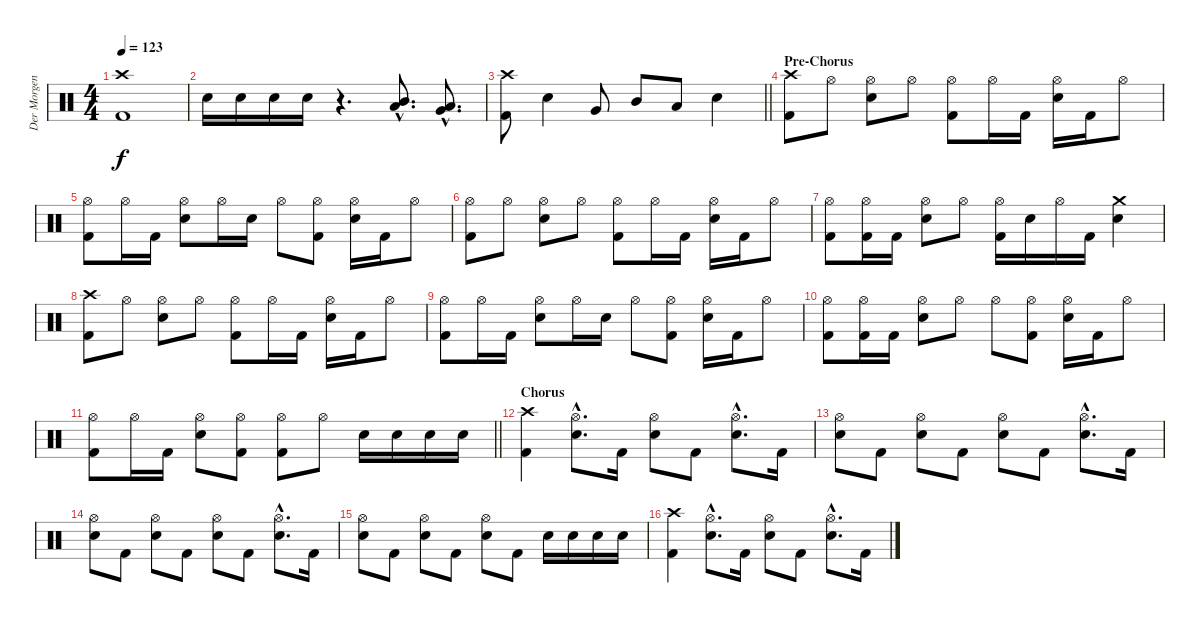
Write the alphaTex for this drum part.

\track ("Der Morgenstern" "Der Morgen") {instrument percussion}
\staff {score}
\articulation defaults
\ts (4 4)
\tempo 123
\clef neutral
\ks c
("Crash high (hit)" "Kick (hit) 2").1{dy f} |
"Electric Snare (hit)".16 "Electric Snare (hit)".16 "Electric Snare (hit)".16 "Electric Snare (hit)".16 r.4{d} ("Mid Tom (hit)"{hac} "Low Tom (hit)"{hac}).8{d} ("Low Tom (hit)"{hac} "Very Low Tom (hit)"{hac}).8{d} |
\barLineRight lightlight
("Crash high (hit)" "Kick (hit) 2").8 "Electric Snare (hit)".4 "Very Low Tom (hit)".8 "Mid Tom (hit)".8 "Low Tom (hit)".8 "Electric Snare (hit)".4 |
\section ("" "Pre-Chorus")
("Crash high (hit)" "Kick (hit) 2").8 "Hi-Hat (open)".8 ("Hi-Hat (open)" "Electric Snare (hit)").8 "Hi-Hat (open)".8 ("Hi-Hat (open)" "Kick (hit) 2").8 "Hi-Hat (open)".16 "Kick (hit) 2".16 ("Hi-Hat (open)" "Electric Snare (hit)").16 "Kick (hit) 2".16 "Hi-Hat (open)".8 |
("Hi-Hat (open)" "Kick (hit) 2").8 "Hi-Hat (open)".16 "Kick (hit) 2".16 ("Hi-Hat (open)" "Electric Snare (hit)").8 "Hi-Hat (open)".16 "Electric Snare (hit)".16 "Hi-Hat (open)".8 ("Hi-Hat (open)" "Kick (hit) 2").8 ("Hi-Hat (open)" "Electric Snare (hit)").16 "Kick (hit) 2".16 "Hi-Hat (open)".8 |
("Hi-Hat (open)" "Kick (hit) 2").8 "Hi-Hat (open)".8 ("Hi-Hat (open)" "Electric Snare (hit)").8 "Hi-Hat (open)".8 ("Hi-Hat (open)" "Kick (hit) 2").8 "Hi-Hat (open)".16 "Kick (hit) 2".16 ("Hi-Hat (open)" "Electric Snare (hit)").16 "Kick (hit) 2".16 "Hi-Hat (open)".8 |
("Hi-Hat (open)" "Kick (hit) 2").8 ("Hi-Hat (open)" "Kick (hit) 2").16 "Kick (hit) 2".16 ("Hi-Hat (open)" "Electric Snare (hit)").8 "Hi-Hat (open)".8 ("Hi-Hat (open)" "Kick (hit) 2").16 "Electric Snare (hit)".16 "Hi-Hat (open)".16 "Kick (hit) 2".16 ("Crash medium (hit)" "Electric Snare (hit)").4 |
("Crash high (hit)" "Kick (hit) 2").8 "Hi-Hat (open)".8 ("Hi-Hat (open)" "Electric Snare (hit)").8 "Hi-Hat (open)".8 ("Hi-Hat (open)" "Kick (hit) 2").8 "Hi-Hat (open)".16 "Kick (hit) 2".16 ("Hi-Hat (open)" "Electric Snare (hit)").16 "Kick (hit) 2".16 "Hi-Hat (open)".8 |
("Hi-Hat (open)" "Kick (hit) 2").8 "Hi-Hat (open)".16 "Kick (hit) 2".16 ("Hi-Hat (open)" "Electric Snare (hit)").8 "Hi-Hat (open)".16 "Electric Snare (hit)".16 "Hi-Hat (open)".8 ("Hi-Hat (open)" "Kick (hit) 2").8 ("Hi-Hat (open)" "Electric Snare (hit)").16 "Kick (hit) 2".16 "Hi-Hat (open)".8 |
("Hi-Hat (open)" "Kick (hit) 2").8 ("Hi-Hat (open)" "Kick (hit) 2").16 "Kick (hit) 2".16 ("Hi-Hat (open)" "Electric Snare (hit)").8 "Hi-Hat (open)".8 "Hi-Hat (open)".8 ("Hi-Hat (open)" "Kick (hit) 2").8 ("Hi-Hat (open)" "Electric Snare (hit)").16 "Kick (hit) 2".16 "Hi-Hat (open)".8 |
\barLineRight lightlight
("Hi-Hat (open)" "Kick (hit) 2").8 "Hi-Hat (open)".16 "Kick (hit) 2".16 ("Hi-Hat (open)" "Electric Snare (hit)").8 ("Hi-Hat (open)" "Kick (hit) 2").8 ("Hi-Hat (open)" "Kick (hit) 2").8 "Hi-Hat (open)".8 "Electric Snare (hit)".16 "Electric Snare (hit)".16 "Electric Snare (hit)".16 "Electric Snare (hit)".16 |
\section ("" "Chorus")
("Crash high (hit)" "Kick (hit) 2").4 ("Hi-Hat (open)"{hac} "Electric Snare (hit)"{hac}).8{d} "Kick (hit) 2".16 ("Hi-Hat (open)" "Electric Snare (hit)").8 "Kick (hit) 2".8 ("Hi-Hat (open)"{hac} "Electric Snare (hit)"{hac}).8{d} "Kick (hit) 2".16 |
("Hi-Hat (open)" "Electric Snare (hit)").8 "Kick (hit) 2".8 ("Hi-Hat (open)" "Electric Snare (hit)").8 "Kick (hit) 2".8 ("Hi-Hat (open)" "Electric Snare (hit)").8 "Kick (hit) 2".8 ("Hi-Hat (open)"{hac} "Electric Snare (hit)"{hac}).8{d} "Kick (hit) 2".16 |
("Hi-Hat (open)" "Electric Snare (hit)").8 "Kick (hit) 2".8 ("Hi-Hat (open)" "Electric Snare (hit)").8 "Kick (hit) 2".8 ("Hi-Hat (open)" "Electric Snare (hit)").8 "Kick (hit) 2".8 ("Hi-Hat (open)"{hac} "Electric Snare (hit)"{hac}).8{d} "Kick (hit) 2".16 |
("Hi-Hat (open)" "Electric Snare (hit)").8 "Kick (hit) 2".8 ("Hi-Hat (open)" "Electric Snare (hit)").8 "Kick (hit) 2".8 ("Hi-Hat (open)" "Electric Snare (hit)").8 "Kick (hit) 2".8 "Electric Snare (hit)".16 "Electric Snare (hit)".16 "Electric Snare (hit)".16 "Electric Snare (hit)".16 |
("Crash high (hit)" "Kick (hit) 2").4 ("Hi-Hat (open)"{hac} "Electric Snare (hit)"{hac}).8{d} "Kick (hit) 2".16 ("Hi-Hat (open)" "Electric Snare (hit)").8 "Kick (hit) 2".8 ("Hi-Hat (open)"{hac} "Electric Snare (hit)"{hac}).8{d} "Kick (hit) 2".16
